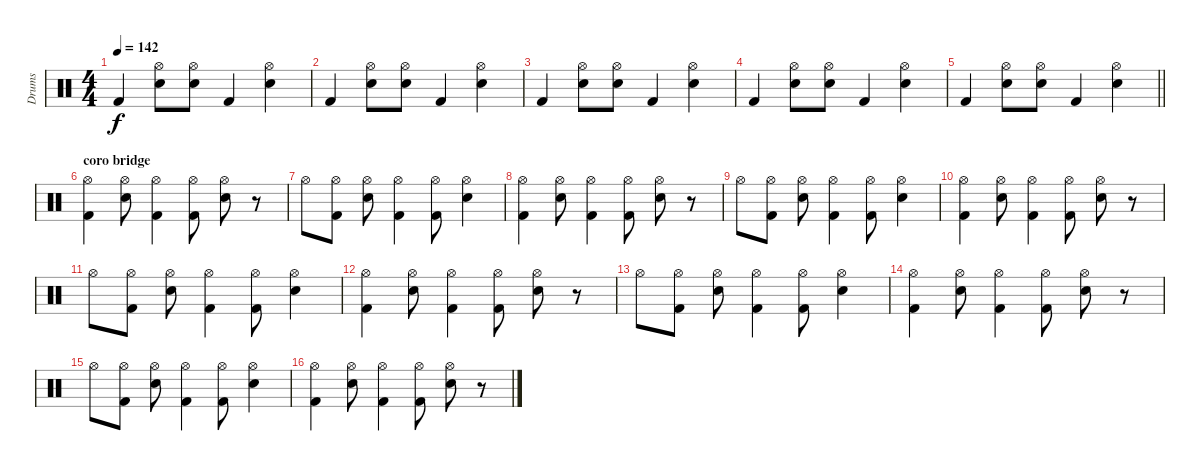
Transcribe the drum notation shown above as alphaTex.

\track ("Drums" "Drums") {instrument percussion}
\staff {score}
\articulation defaults
\ts (4 4)
\tempo 142
\clef neutral
\ks c "Kick (hit) 2".4{dy f}
("Electric Snare (hit)" "Hi-Hat (open)").8 ("Electric Snare (hit)" "Hi-Hat (open)").8 "Kick (hit) 2".4 ("Electric Snare (hit)" "Hi-Hat (open)").4 |
"Kick (hit) 2".4 ("Electric Snare (hit)" "Hi-Hat (open)").8 ("Electric Snare (hit)" "Hi-Hat (open)").8 "Kick (hit) 2".4 ("Electric Snare (hit)" "Hi-Hat (open)").4 |
"Kick (hit) 2".4 ("Electric Snare (hit)" "Hi-Hat (open)").8 ("Electric Snare (hit)" "Hi-Hat (open)").8 "Kick (hit) 2".4 ("Electric Snare (hit)" "Hi-Hat (open)").4 |
"Kick (hit) 2".4 ("Electric Snare (hit)" "Hi-Hat (open)").8 ("Electric Snare (hit)" "Hi-Hat (open)").8 "Kick (hit) 2".4 ("Electric Snare (hit)" "Hi-Hat (open)").4 |
\barLineRight lightlight "Kick (hit) 2".4
("Electric Snare (hit)" "Hi-Hat (open)").8 ("Electric Snare (hit)" "Hi-Hat (open)").8 "Kick (hit) 2".4 ("Electric Snare (hit)" "Hi-Hat (open)").4 |
\section ("" "coro bridge")
("Kick (hit) 2" "Hi-Hat (open)").4 ("Electric Snare (hit)" "Hi-Hat (open)").8 ("Kick (hit) 2" "Hi-Hat (open)").4 ("Kick (hit) 2" "Hi-Hat (open)").8 ("Electric Snare (hit)" "Hi-Hat (open)").8 r.8 |
"Hi-Hat (open)".8 ("Kick (hit) 2" "Hi-Hat (open)").8 ("Electric Snare (hit)" "Hi-Hat (open)").8 ("Kick (hit) 2" "Hi-Hat (open)").4 ("Kick (hit) 2" "Hi-Hat (open)").8 ("Electric Snare (hit)" "Hi-Hat (open)").4 |
("Kick (hit) 2" "Hi-Hat (open)").4 ("Electric Snare (hit)" "Hi-Hat (open)").8 ("Kick (hit) 2" "Hi-Hat (open)").4 ("Kick (hit) 2" "Hi-Hat (open)").8 ("Electric Snare (hit)" "Hi-Hat (open)").8 r.8 |
"Hi-Hat (open)".8 ("Kick (hit) 2" "Hi-Hat (open)").8 ("Electric Snare (hit)" "Hi-Hat (open)").8 ("Kick (hit) 2" "Hi-Hat (open)").4 ("Kick (hit) 2" "Hi-Hat (open)").8 ("Electric Snare (hit)" "Hi-Hat (open)").4 |
("Kick (hit) 2" "Hi-Hat (open)").4 ("Electric Snare (hit)" "Hi-Hat (open)").8 ("Kick (hit) 2" "Hi-Hat (open)").4 ("Kick (hit) 2" "Hi-Hat (open)").8 ("Electric Snare (hit)" "Hi-Hat (open)").8 r.8 |
"Hi-Hat (open)".8 ("Kick (hit) 2" "Hi-Hat (open)").8 ("Electric Snare (hit)" "Hi-Hat (open)").8 ("Kick (hit) 2" "Hi-Hat (open)").4 ("Kick (hit) 2" "Hi-Hat (open)").8 ("Electric Snare (hit)" "Hi-Hat (open)").4 |
("Kick (hit) 2" "Hi-Hat (open)").4 ("Electric Snare (hit)" "Hi-Hat (open)").8 ("Kick (hit) 2" "Hi-Hat (open)").4 ("Kick (hit) 2" "Hi-Hat (open)").8 ("Electric Snare (hit)" "Hi-Hat (open)").8 r.8 |
"Hi-Hat (open)".8 ("Kick (hit) 2" "Hi-Hat (open)").8 ("Electric Snare (hit)" "Hi-Hat (open)").8 ("Kick (hit) 2" "Hi-Hat (open)").4 ("Kick (hit) 2" "Hi-Hat (open)").8 ("Electric Snare (hit)" "Hi-Hat (open)").4 |
("Kick (hit) 2" "Hi-Hat (open)").4 ("Electric Snare (hit)" "Hi-Hat (open)").8 ("Kick (hit) 2" "Hi-Hat (open)").4 ("Kick (hit) 2" "Hi-Hat (open)").8 ("Electric Snare (hit)" "Hi-Hat (open)").8 r.8 |
"Hi-Hat (open)".8 ("Kick (hit) 2" "Hi-Hat (open)").8 ("Electric Snare (hit)" "Hi-Hat (open)").8 ("Kick (hit) 2" "Hi-Hat (open)").4 ("Kick (hit) 2" "Hi-Hat (open)").8 ("Electric Snare (hit)" "Hi-Hat (open)").4 |
("Kick (hit) 2" "Hi-Hat (open)").4 ("Electric Snare (hit)" "Hi-Hat (open)").8 ("Kick (hit) 2" "Hi-Hat (open)").4 ("Kick (hit) 2" "Hi-Hat (open)").8 ("Electric Snare (hit)" "Hi-Hat (open)").8 r.8
